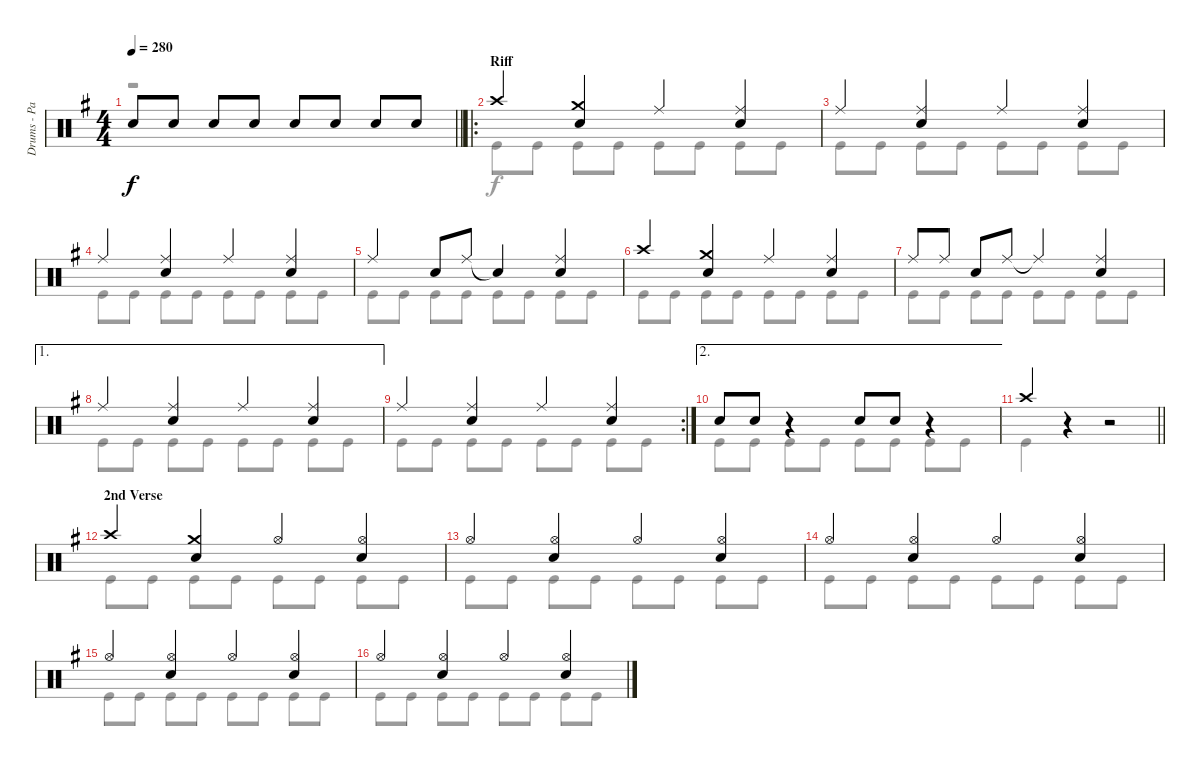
\track ("Drums - Patrick Johansson" "Drums - Pa") {instrument percussion}
\staff {score}
\articulation defaults
\voice
\ts (4 4)
\tempo 280
\clef neutral
\barLineRight lightlight
\ks eminor "Snare (hit) 2".8{dy f} "Snare (hit) 2".8 "Snare (hit) 2".8 "Snare (hit) 2".8 "Snare (hit) 2".8 "Snare (hit) 2".8 "Snare (hit) 2".8 "Snare (hit) 2".8
|
\ro
\section ("" "Riff")
"Crash high (hit)".4 ("Crash medium (hit)" "Snare (hit) 2").4 "Ride (middle)".4 ("Ride (middle)" "Snare (hit) 2").4 |
"Ride (middle)".4 ("Ride (middle)" "Snare (hit) 2").4 "Ride (middle)".4 ("Ride (middle)" "Snare (hit) 2").4 |
"Ride (middle)".4 ("Ride (middle)" "Snare (hit) 2").4 "Ride (middle)".4 ("Ride (middle)" "Snare (hit) 2").4 |
"Ride (middle)".4 "Snare (hit) 2".8 "Ride (middle)".8 "Snare (hit)"{t}.4 ("Ride (middle)" "Snare (hit) 2").4 |
"Crash high (hit)".4 ("Crash medium (hit)" "Snare (hit) 2").4 "Ride (middle)".4 ("Ride (middle)" "Snare (hit) 2").4 |
"Ride (middle)".8 "Ride (middle)".8 "Snare (hit) 2".8 "Ride (middle)".8 "Ride (middle)"{t}.4 ("Ride (middle)" "Snare (hit) 2").4 |
\ae 1 "Ride (middle)".4
("Ride (middle)" "Snare (hit) 2").4 "Ride (middle)".4 ("Ride (middle)" "Snare (hit) 2").4 |
\rc 2 "Ride (middle)".4
("Ride (middle)" "Snare (hit) 2").4 "Ride (middle)".4 ("Ride (middle)" "Snare (hit) 2").4 |
\ae 2 "Snare (hit) 2".8 "Snare (hit) 2".8
r.4 "Snare (hit) 2".8 "Snare (hit) 2".8 r.4 |
\barLineRight lightlight "Crash high (hit)".4
r.4 r.2 |
\section ("" "2nd Verse")
"Crash high (hit)".4 ("Crash medium (hit)" "Snare (hit) 2").4 "Hi-Hat (open)".4 ("Hi-Hat (open)" "Snare (hit) 2").4 |
"Hi-Hat (open)".4 ("Hi-Hat (open)" "Snare (hit) 2").4 "Hi-Hat (open)".4 ("Hi-Hat (open)" "Snare (hit) 2").4 |
"Hi-Hat (open)".4 ("Hi-Hat (open)" "Snare (hit) 2").4 "Hi-Hat (open)".4 ("Hi-Hat (open)" "Snare (hit) 2").4 |
"Hi-Hat (open)".4 ("Hi-Hat (open)" "Snare (hit) 2").4 "Hi-Hat (open)".4 ("Hi-Hat (open)" "Snare (hit) 2").4 |
"Hi-Hat (open)".4 ("Hi-Hat (open)" "Snare (hit) 2").4 "Hi-Hat (open)".4 ("Hi-Hat (open)" "Snare (hit) 2").4
\voice
\clef neutral
\ottava regular
\simile none
\barLineRight lightlight
\ks eminor
r.1{dy f} |
"Kick (hit)".8 "Kick (hit)".8 "Kick (hit)".8 "Kick (hit)".8 "Kick (hit)".8 "Kick (hit)".8 "Kick (hit)".8 "Kick (hit)".8 |
"Kick (hit)".8 "Kick (hit)".8 "Kick (hit)".8 "Kick (hit)".8 "Kick (hit)".8 "Kick (hit)".8 "Kick (hit)".8 "Kick (hit)".8 |
"Kick (hit)".8 "Kick (hit)".8 "Kick (hit)".8 "Kick (hit)".8 "Kick (hit)".8 "Kick (hit)".8 "Kick (hit)".8 "Kick (hit)".8 |
"Kick (hit)".8 "Kick (hit)".8 "Kick (hit)".8 "Kick (hit)".8 "Kick (hit)".8 "Kick (hit)".8 "Kick (hit)".8 "Kick (hit)".8 |
"Kick (hit)".8 "Kick (hit)".8 "Kick (hit)".8 "Kick (hit)".8 "Kick (hit)".8 "Kick (hit)".8 "Kick (hit)".8 "Kick (hit)".8 |
"Kick (hit)".8 "Kick (hit)".8 "Kick (hit)".8 "Kick (hit)".8 "Kick (hit)".8 "Kick (hit)".8 "Kick (hit)".8 "Kick (hit)".8 |
"Kick (hit)".8 "Kick (hit)".8 "Kick (hit)".8 "Kick (hit)".8 "Kick (hit)".8 "Kick (hit)".8 "Kick (hit)".8 "Kick (hit)".8 |
"Kick (hit)".8 "Kick (hit)".8 "Kick (hit)".8 "Kick (hit)".8 "Kick (hit)".8 "Kick (hit)".8 "Kick (hit)".8 "Kick (hit)".8 |
"Kick (hit)".8 "Kick (hit)".8 "Kick (hit)".8 "Kick (hit)".8 "Kick (hit)".8 "Kick (hit)".8 "Kick (hit)".8 "Kick (hit)".8 |
\barLineRight lightlight "Kick (hit)".4
r.4 r.2 |
"Kick (hit)".8 "Kick (hit)".8 "Kick (hit)".8 "Kick (hit)".8 "Kick (hit)".8 "Kick (hit)".8 "Kick (hit)".8 "Kick (hit)".8 |
"Kick (hit)".8 "Kick (hit)".8 "Kick (hit)".8 "Kick (hit)".8 "Kick (hit)".8 "Kick (hit)".8 "Kick (hit)".8 "Kick (hit)".8 |
"Kick (hit)".8 "Kick (hit)".8 "Kick (hit)".8 "Kick (hit)".8 "Kick (hit)".8 "Kick (hit)".8 "Kick (hit)".8 "Kick (hit)".8 |
"Kick (hit)".8 "Kick (hit)".8 "Kick (hit)".8 "Kick (hit)".8 "Kick (hit)".8 "Kick (hit)".8 "Kick (hit)".8 "Kick (hit)".8 |
"Kick (hit)".8 "Kick (hit)".8 "Kick (hit)".8 "Kick (hit)".8 "Kick (hit)".8 "Kick (hit)".8 "Kick (hit)".8 "Kick (hit)".8
